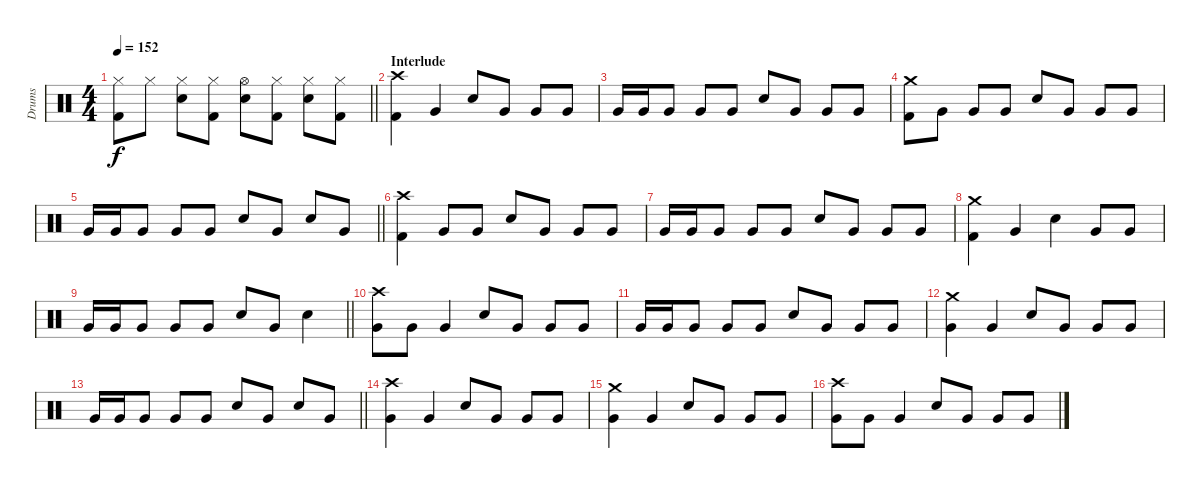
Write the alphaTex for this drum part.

\track ("Drums" "Drums") {instrument percussion}
\staff
\articulation defaults
\ts (4 4)
\tempo 152
\clef neutral
\barLineRight lightlight
\ks c
("Hi-Hat (closed)" "Kick (hit) 2").8{dy f} "Hi-Hat (closed)".8 ("Hi-Hat (closed)" "Electric Snare (hit)").8 ("Hi-Hat (closed)" "Kick (hit) 2").8 ("Hi-Hat (open)" "Electric Snare (hit)").8 ("Hi-Hat (closed)" "Kick (hit) 2").8 ("Hi-Hat (closed)" "Electric Snare (hit)").8 ("Hi-Hat (closed)" "Kick (hit) 2").8 |
\section ("" "Interlude")
("Crash high (hit)" "Kick (hit) 2").4 "Very Low Tom (hit)".4 "Electric Snare (hit)".8 "Very Low Tom (hit)".8 "Very Low Tom (hit)".8 "Very Low Tom (hit)".8 |
"Very Low Tom (hit)".16 "Very Low Tom (hit)".16 "Very Low Tom (hit)".8 "Very Low Tom (hit)".8 "Very Low Tom (hit)".8 "Electric Snare (hit)".8 "Very Low Tom (hit)".8 "Very Low Tom (hit)".8 "Very Low Tom (hit)".8 |
("Crash medium (hit)" "Kick (hit) 2").8 "Very Low Tom (hit)".8 "Very Low Tom (hit)".8 "Very Low Tom (hit)".8 "Electric Snare (hit)".8 "Very Low Tom (hit)".8 "Very Low Tom (hit)".8 "Very Low Tom (hit)".8 |
\barLineRight lightlight "Very Low Tom (hit)".16 "Very Low Tom (hit)".16 "Very Low Tom (hit)".8 "Very Low Tom (hit)".8 "Very Low Tom (hit)".8 "Electric Snare (hit)".8 "Very Low Tom (hit)".8 "Electric Snare (hit)".8 "Very Low Tom (hit)".8
|
("Crash high (hit)" "Kick (hit) 2").4 "Very Low Tom (hit)".8 "Very Low Tom (hit)".8 "Electric Snare (hit)".8 "Very Low Tom (hit)".8 "Very Low Tom (hit)".8 "Very Low Tom (hit)".8 |
"Very Low Tom (hit)".16 "Very Low Tom (hit)".16 "Very Low Tom (hit)".8 "Very Low Tom (hit)".8 "Very Low Tom (hit)".8 "Electric Snare (hit)".8 "Very Low Tom (hit)".8 "Very Low Tom (hit)".8 "Very Low Tom (hit)".8 |
("Crash medium (hit)" "Kick (hit) 2").4 "Very Low Tom (hit)".4 "Electric Snare (hit)".4 "Very Low Tom (hit)".8 "Very Low Tom (hit)".8 |
\barLineRight lightlight "Very Low Tom (hit)".16 "Very Low Tom (hit)".16 "Very Low Tom (hit)".8 "Very Low Tom (hit)".8 "Very Low Tom (hit)".8 "Electric Snare (hit)".8 "Very Low Tom (hit)".8 "Electric Snare (hit)".4
|
("Crash high (hit)" "Very Low Tom (hit)").8 "Very Low Tom (hit)".8 "Very Low Tom (hit)".4 "Electric Snare (hit)".8 "Very Low Tom (hit)".8 "Very Low Tom (hit)".8 "Very Low Tom (hit)".8 |
"Very Low Tom (hit)".16 "Very Low Tom (hit)".16 "Very Low Tom (hit)".8 "Very Low Tom (hit)".8 "Very Low Tom (hit)".8 "Electric Snare (hit)".8 "Very Low Tom (hit)".8 "Very Low Tom (hit)".8 "Very Low Tom (hit)".8 |
("Crash medium (hit)" "Very Low Tom (hit)").4 "Very Low Tom (hit)".4 "Electric Snare (hit)".8 "Very Low Tom (hit)".8 "Very Low Tom (hit)".8 "Very Low Tom (hit)".8 |
\barLineRight lightlight "Very Low Tom (hit)".16 "Very Low Tom (hit)".16 "Very Low Tom (hit)".8 "Very Low Tom (hit)".8 "Very Low Tom (hit)".8 "Electric Snare (hit)".8 "Very Low Tom (hit)".8 "Electric Snare (hit)".8 "Very Low Tom (hit)".8
|
("Crash high (hit)" "Very Low Tom (hit)").4 "Very Low Tom (hit)".4 "Electric Snare (hit)".8 "Very Low Tom (hit)".8 "Very Low Tom (hit)".8 "Very Low Tom (hit)".8 |
("Crash medium (hit)" "Very Low Tom (hit)").4 "Very Low Tom (hit)".4 "Electric Snare (hit)".8 "Very Low Tom (hit)".8 "Very Low Tom (hit)".8 "Very Low Tom (hit)".8 |
("Crash high (hit)" "Very Low Tom (hit)").8 "Very Low Tom (hit)".8 "Very Low Tom (hit)".4 "Electric Snare (hit)".8 "Very Low Tom (hit)".8 "Very Low Tom (hit)".8 "Very Low Tom (hit)".8
